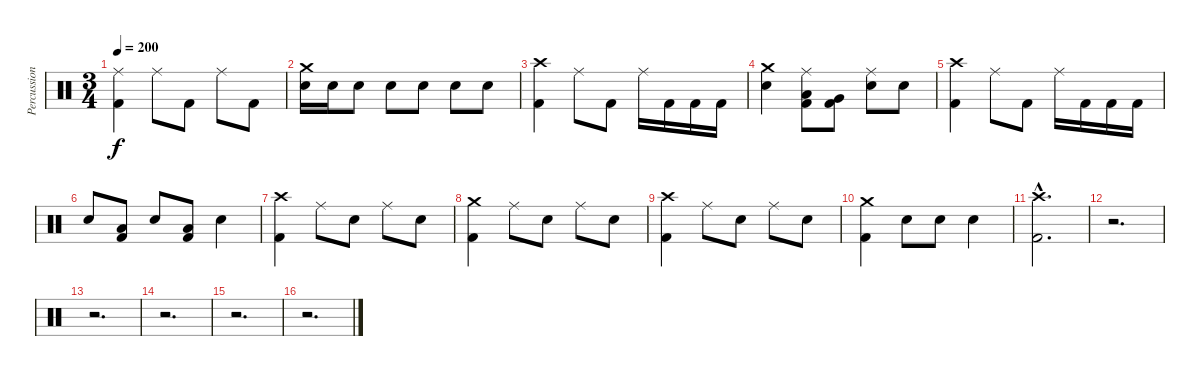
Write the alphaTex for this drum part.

\track ("Percussion" "Percussion") {instrument percussion}
\staff {score}
\articulation defaults
\ts (3 4)
\tempo 200
\clef neutral
\ks c
("Ride (middle)" "Kick (hit) 2").4{dy f} "Ride (middle)".8 "Kick (hit) 2".8 "Ride (middle)".8 "Kick (hit) 2".8 |
("Crash medium (hit)" "Electric Snare (hit)").16 "Electric Snare (hit)".16 "Electric Snare (hit)".8 "Electric Snare (hit)".8 "Electric Snare (hit)".8 "Electric Snare (hit)".8 "Electric Snare (hit)".8 |
("Crash high (hit)" "Kick (hit) 2").4 "Ride (middle)".8 "Kick (hit) 2".8 "Ride (middle)".16 "Kick (hit) 2".16 "Kick (hit) 2".16 "Kick (hit) 2".16 |
("Crash medium (hit)" "Electric Snare (hit)").4 ("Ride (middle)" "Low Tom (hit)" "Kick (hit) 2").8 ("Very Low Tom (hit)" "Kick (hit) 2").8 ("Ride (middle)" "Electric Snare (hit)").8 "Electric Snare (hit)".8 |
("Crash high (hit)" "Kick (hit) 2").4 "Ride (middle)".8 "Kick (hit) 2".8 "Ride (middle)".16 "Kick (hit) 2".16 "Kick (hit) 2".16 "Kick (hit) 2".16 |
"Electric Snare (hit)".8 ("Low Tom (hit)" "Kick (hit) 2").8 "Electric Snare (hit)".8 ("Low Tom (hit)" "Kick (hit) 2").8 "Electric Snare (hit)".4 |
("Crash high (hit)" "Kick (hit) 2").4 "Ride (middle)".8 "Electric Snare (hit)".8 "Ride (middle)".8 "Electric Snare (hit)".8 |
("Crash medium (hit)" "Kick (hit) 2").4 "Ride (middle)".8 "Electric Snare (hit)".8 "Ride (middle)".8 "Electric Snare (hit)".8 |
("Crash high (hit)" "Kick (hit) 2").4 "Ride (middle)".8 "Electric Snare (hit)".8 "Ride (middle)".8 "Electric Snare (hit)".8 |
("Crash medium (hit)" "Kick (hit) 2").4 "Electric Snare (hit)".8 "Electric Snare (hit)".8 "Electric Snare (hit)".4 |
("Crash high (hit)"{hac} "Kick (hit) 2"{hac}).2{d} |
r.2{d} |
r.2{d} |
r.2{d} |
r.2{d} |
r.2{d}
